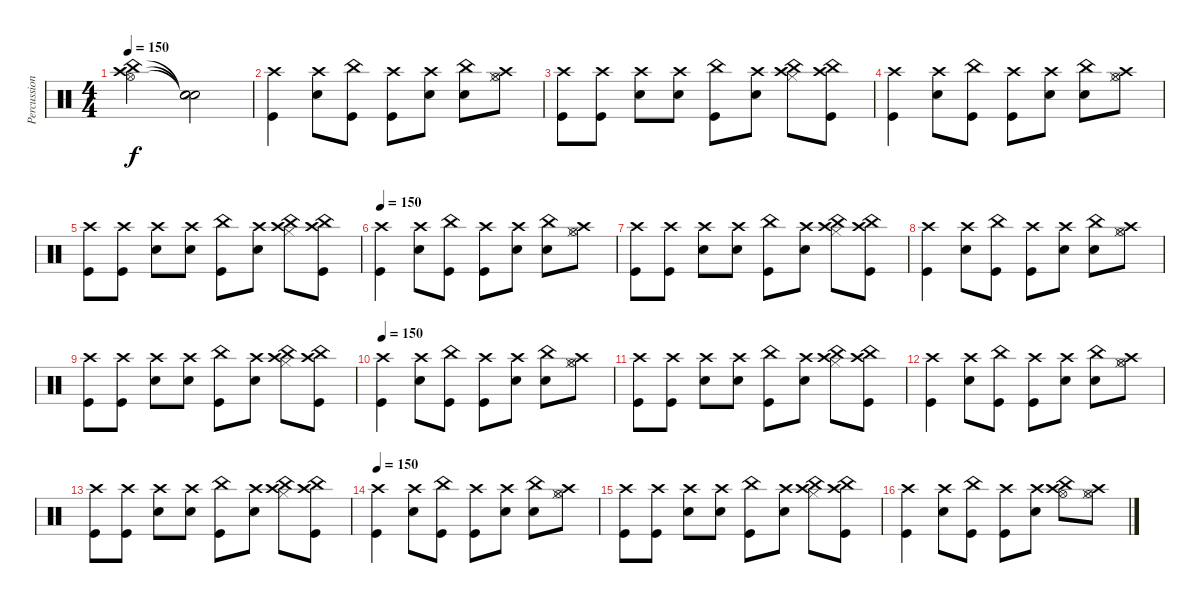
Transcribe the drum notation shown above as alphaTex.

\track ("Percussion" "Percussion") {instrument percussion}
\staff {score}
\articulation defaults
\ts (4 4)
\tempo 150
\clef neutral
\ks c
("Hi-Hat (open)" "Crash high (hit)" "China (hit)").2{dy f} ("Snare (hit)"{t} "Snare (hit)"{t} "Snare (hit)"{t}).2 |
("Kick (hit)" "Crash high (hit)").4 ("Snare (hit) 2" "Crash high (hit)").8 ("Kick (hit)" "China (hit)").8 ("Kick (hit)" "Crash high (hit)").8 ("Snare (hit) 2" "Crash high (hit)").8 ("Snare (hit) 2" "China (hit)").8 ("Hi-Hat (closed)" "Hi-Hat (open)" "Crash high (hit)").8 |
("Kick (hit)" "Crash high (hit)").8 ("Kick (hit)" "Crash high (hit)").8 ("Snare (hit) 2" "Crash high (hit)").8 ("Snare (hit) 2" "Crash high (hit)").8 ("Kick (hit)" "China (hit)").8 ("Snare (hit) 2" "Crash high (hit)").8 ("Hi-Hat (closed)" "Crash high (hit)" "China (hit)").8 ("Kick (hit)" "China (hit)" "Crash high (hit)").8 |
("Kick (hit)" "Crash high (hit)").4 ("Snare (hit) 2" "Crash high (hit)").8 ("Kick (hit)" "China (hit)").8 ("Kick (hit)" "Crash high (hit)").8 ("Snare (hit) 2" "Crash high (hit)").8 ("Snare (hit) 2" "China (hit)").8 ("Hi-Hat (closed)" "Hi-Hat (open)" "Crash high (hit)").8 |
("Kick (hit)" "Crash high (hit)").8 ("Kick (hit)" "Crash high (hit)").8 ("Snare (hit) 2" "Crash high (hit)").8 ("Snare (hit) 2" "Crash high (hit)").8 ("Kick (hit)" "China (hit)").8 ("Snare (hit) 2" "Crash high (hit)").8 ("Hi-Hat (closed)" "Crash high (hit)" "China (hit)").8 ("Kick (hit)" "China (hit)" "Crash high (hit)").8 |
\tempo 150
("Kick (hit)" "Crash high (hit)").4 ("Snare (hit) 2" "Crash high (hit)").8 ("Kick (hit)" "China (hit)").8 ("Kick (hit)" "Crash high (hit)").8 ("Snare (hit) 2" "Crash high (hit)").8 ("Snare (hit) 2" "China (hit)").8 ("Hi-Hat (closed)" "Hi-Hat (open)" "Crash high (hit)").8 |
("Kick (hit)" "Crash high (hit)").8 ("Kick (hit)" "Crash high (hit)").8 ("Snare (hit) 2" "Crash high (hit)").8 ("Snare (hit) 2" "Crash high (hit)").8 ("Kick (hit)" "China (hit)").8 ("Snare (hit) 2" "Crash high (hit)").8 ("Hi-Hat (closed)" "Crash high (hit)" "China (hit)").8 ("Kick (hit)" "China (hit)" "Crash high (hit)").8 |
("Kick (hit)" "Crash high (hit)").4 ("Snare (hit) 2" "Crash high (hit)").8 ("Kick (hit)" "China (hit)").8 ("Kick (hit)" "Crash high (hit)").8 ("Snare (hit) 2" "Crash high (hit)").8 ("Snare (hit) 2" "China (hit)").8 ("Hi-Hat (closed)" "Hi-Hat (open)" "Crash high (hit)").8 |
("Kick (hit)" "Crash high (hit)").8 ("Kick (hit)" "Crash high (hit)").8 ("Snare (hit) 2" "Crash high (hit)").8 ("Snare (hit) 2" "Crash high (hit)").8 ("Kick (hit)" "China (hit)").8 ("Snare (hit) 2" "Crash high (hit)").8 ("Hi-Hat (closed)" "Crash high (hit)" "China (hit)").8 ("Kick (hit)" "China (hit)" "Crash high (hit)").8 |
\tempo 150
("Kick (hit)" "Crash high (hit)").4 ("Snare (hit) 2" "Crash high (hit)").8 ("Kick (hit)" "China (hit)").8 ("Kick (hit)" "Crash high (hit)").8 ("Snare (hit) 2" "Crash high (hit)").8 ("Snare (hit) 2" "China (hit)").8 ("Hi-Hat (closed)" "Hi-Hat (open)" "Crash high (hit)").8 |
("Kick (hit)" "Crash high (hit)").8 ("Kick (hit)" "Crash high (hit)").8 ("Snare (hit) 2" "Crash high (hit)").8 ("Snare (hit) 2" "Crash high (hit)").8 ("Kick (hit)" "China (hit)").8 ("Snare (hit) 2" "Crash high (hit)").8 ("Hi-Hat (closed)" "Crash high (hit)" "China (hit)").8 ("Kick (hit)" "China (hit)" "Crash high (hit)").8 |
("Kick (hit)" "Crash high (hit)").4 ("Snare (hit) 2" "Crash high (hit)").8 ("Kick (hit)" "China (hit)").8 ("Kick (hit)" "Crash high (hit)").8 ("Snare (hit) 2" "Crash high (hit)").8 ("Snare (hit) 2" "China (hit)").8 ("Hi-Hat (closed)" "Hi-Hat (open)" "Crash high (hit)").8 |
("Kick (hit)" "Crash high (hit)").8 ("Kick (hit)" "Crash high (hit)").8 ("Snare (hit) 2" "Crash high (hit)").8 ("Snare (hit) 2" "Crash high (hit)").8 ("Kick (hit)" "China (hit)").8 ("Snare (hit) 2" "Crash high (hit)").8 ("Hi-Hat (closed)" "Crash high (hit)" "China (hit)").8 ("Kick (hit)" "China (hit)" "Crash high (hit)").8 |
\tempo 150
("Kick (hit)" "Crash high (hit)").4 ("Snare (hit) 2" "Crash high (hit)").8 ("Kick (hit)" "China (hit)").8 ("Kick (hit)" "Crash high (hit)").8 ("Snare (hit) 2" "Crash high (hit)").8 ("Snare (hit) 2" "China (hit)").8 ("Hi-Hat (closed)" "Hi-Hat (open)" "Crash high (hit)").8 |
("Kick (hit)" "Crash high (hit)").8 ("Kick (hit)" "Crash high (hit)").8 ("Snare (hit) 2" "Crash high (hit)").8 ("Snare (hit) 2" "Crash high (hit)").8 ("Kick (hit)" "China (hit)").8 ("Snare (hit) 2" "Crash high (hit)").8 ("Hi-Hat (closed)" "Crash high (hit)" "China (hit)").8 ("Kick (hit)" "China (hit)" "Crash high (hit)").8 |
("Kick (hit)" "Crash high (hit)").4 ("Snare (hit) 2" "Crash high (hit)").8 ("Kick (hit)" "China (hit)").8 ("Kick (hit)" "Crash high (hit)").8 ("Snare (hit) 2" "Crash high (hit)").8 ("Crash high (hit)" "Hi-Hat (open)" "China (hit)").8 ("Hi-Hat (closed)" "Hi-Hat (open)" "Crash high (hit)").8
